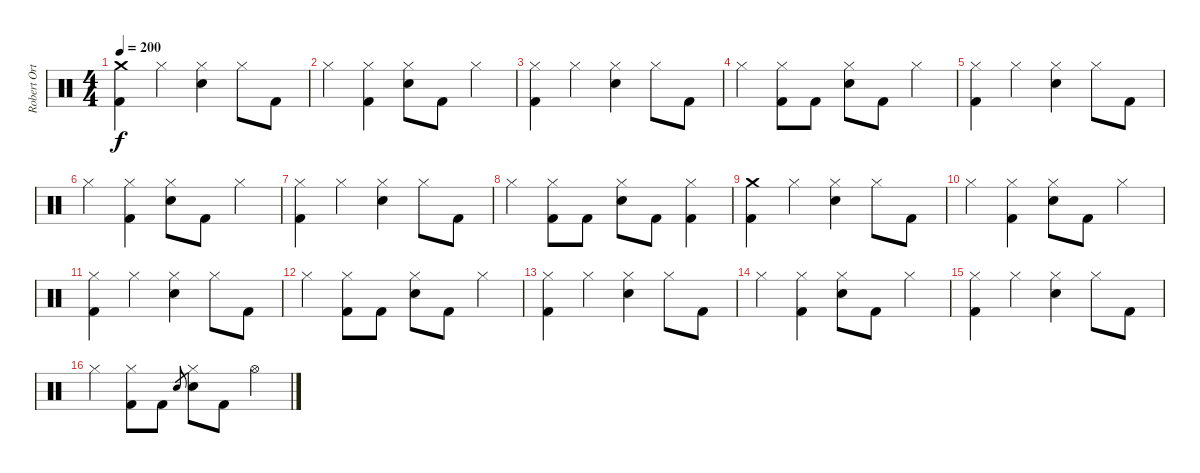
\track ("Robert Ortiz - Drums" "Robert Ort") {instrument percussion}
\staff {score}
\articulation defaults
\ts (4 4)
\tempo 200
\clef neutral
\ks c
("Crash medium (hit)" "Kick (hit) 2").4{dy f} "Hi-Hat (closed)".4 ("Hi-Hat (closed)" "Electric Snare (hit)").4 "Hi-Hat (closed)".8 "Kick (hit) 2".8 |
"Hi-Hat (closed)".4 ("Hi-Hat (closed)" "Kick (hit) 2").4 ("Hi-Hat (closed)" "Electric Snare (hit)").8 "Kick (hit) 2".8 "Hi-Hat (closed)".4 |
("Hi-Hat (closed)" "Kick (hit) 2").4 "Hi-Hat (closed)".4 ("Hi-Hat (closed)" "Electric Snare (hit)").4 "Hi-Hat (closed)".8 "Kick (hit) 2".8 |
"Hi-Hat (closed)".4 ("Hi-Hat (closed)" "Kick (hit) 2").8 "Kick (hit) 2".8 ("Hi-Hat (closed)" "Electric Snare (hit)").8 "Kick (hit) 2".8 "Hi-Hat (closed)".4 |
("Hi-Hat (closed)" "Kick (hit) 2").4 "Hi-Hat (closed)".4 ("Hi-Hat (closed)" "Electric Snare (hit)").4 "Hi-Hat (closed)".8 "Kick (hit) 2".8 |
"Hi-Hat (closed)".4 ("Hi-Hat (closed)" "Kick (hit) 2").4 ("Hi-Hat (closed)" "Electric Snare (hit)").8 "Kick (hit) 2".8 "Hi-Hat (closed)".4 |
("Hi-Hat (closed)" "Kick (hit) 2").4 "Hi-Hat (closed)".4 ("Hi-Hat (closed)" "Electric Snare (hit)").4 "Hi-Hat (closed)".8 "Kick (hit) 2".8 |
"Hi-Hat (closed)".4 ("Hi-Hat (closed)" "Kick (hit) 2").8 "Kick (hit) 2".8 ("Hi-Hat (closed)" "Electric Snare (hit)").8 "Kick (hit) 2".8 ("Hi-Hat (closed)" "Kick (hit) 2").4 |
("Crash medium (hit)" "Kick (hit) 2").4 "Hi-Hat (closed)".4 ("Hi-Hat (closed)" "Electric Snare (hit)").4 "Hi-Hat (closed)".8 "Kick (hit) 2".8 |
"Hi-Hat (closed)".4 ("Hi-Hat (closed)" "Kick (hit) 2").4 ("Hi-Hat (closed)" "Electric Snare (hit)").8 "Kick (hit) 2".8 "Hi-Hat (closed)".4 |
("Hi-Hat (closed)" "Kick (hit) 2").4 "Hi-Hat (closed)".4 ("Hi-Hat (closed)" "Electric Snare (hit)").4 "Hi-Hat (closed)".8 "Kick (hit) 2".8 |
"Hi-Hat (closed)".4 ("Hi-Hat (closed)" "Kick (hit) 2").8 "Kick (hit) 2".8 ("Hi-Hat (closed)" "Electric Snare (hit)").8 "Kick (hit) 2".8 "Hi-Hat (closed)".4 |
("Hi-Hat (closed)" "Kick (hit) 2").4 "Hi-Hat (closed)".4 ("Hi-Hat (closed)" "Electric Snare (hit)").4 "Hi-Hat (closed)".8 "Kick (hit) 2".8 |
"Hi-Hat (closed)".4 ("Hi-Hat (closed)" "Kick (hit) 2").4 ("Hi-Hat (closed)" "Electric Snare (hit)").8 "Kick (hit) 2".8 "Hi-Hat (closed)".4 |
("Hi-Hat (closed)" "Kick (hit) 2").4 "Hi-Hat (closed)".4 ("Hi-Hat (closed)" "Electric Snare (hit)").4 "Hi-Hat (closed)".8 "Kick (hit) 2".8 |
"Hi-Hat (closed)".4 ("Hi-Hat (closed)" "Kick (hit) 2").8 "Kick (hit) 2".8 "Electric Snare (hit)".8{gr} ("Hi-Hat (closed)" "Electric Snare (hit)").8 "Kick (hit) 2".8 "Hi-Hat (open)".4
